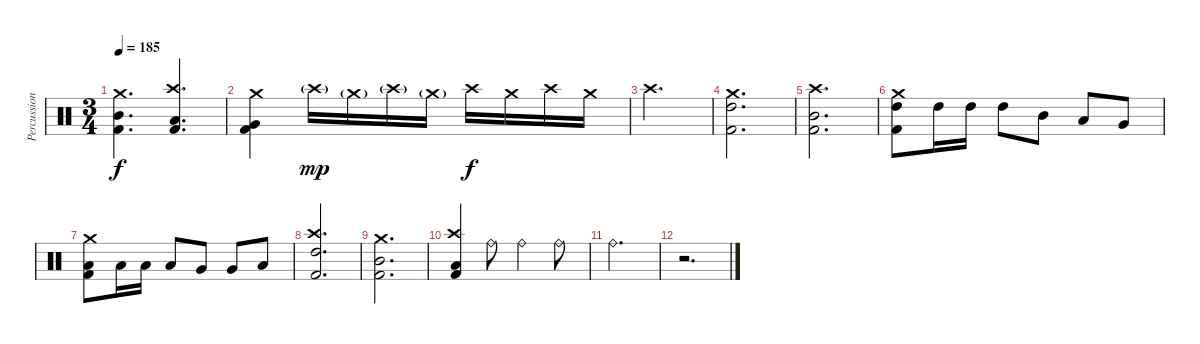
\track ("Percussion" "Percussion") {instrument percussion}
\staff {score}
\articulation defaults
\ts (3 4)
\tempo 185
\clef neutral
\ks c
("Crash medium (hit)" "Mid Tom (hit)" "Kick (hit) 2").4{d dy f} ("Crash high (hit)" "Low Tom (hit)" "Kick (hit) 2").4{d} |
("Crash medium (hit)" "Very Low Tom (hit)" "Kick (hit) 2").4 "Crash high (hit)"{g}.16{dy mp} "Crash medium (hit)"{g}.16 "Crash high (hit)"{g}.16 "Crash medium (hit)"{g}.16 "Crash high (hit)".16{dy f} "Crash medium (hit)".16 "Crash high (hit)".16 "Crash medium (hit)".16 |
"Crash high (hit)".2{d} |
("Crash medium (hit)" "High Tom (hit)" "Kick (hit) 2").2{d} |
("Crash high (hit)" "Mid Tom (hit)" "Kick (hit) 2").2{d} |
("Crash medium (hit)" "High Tom (hit)" "Kick (hit) 2").8 "High Tom (hit)".16 "High Tom (hit)".16 "High Tom (hit)".8 "Mid Tom (hit)".8 "Low Tom (hit)".8 "Very Low Tom (hit)".8 |
("Crash medium (hit)" "Low Tom (hit)" "Kick (hit) 2").8 "Low Tom (hit)".16 "Low Tom (hit)".16 "Low Tom (hit)".8 "Very Low Tom (hit)".8 "Very Low Tom (hit)".8 "Low Floor Tom (hit)".8 |
("Crash high (hit)" "High Tom (hit)" "Kick (hit) 2").2{d} |
("Crash medium (hit)" "Mid Tom (hit)" "Kick (hit) 2").2{d} |
("Crash high (hit)" "Low Tom (hit)" "Kick (hit) 2").4 "Ride (bell)".8 "Ride (bell)".4 "Ride (bell)".8 |
"Ride (bell)".2{d} |
r.2{d}
